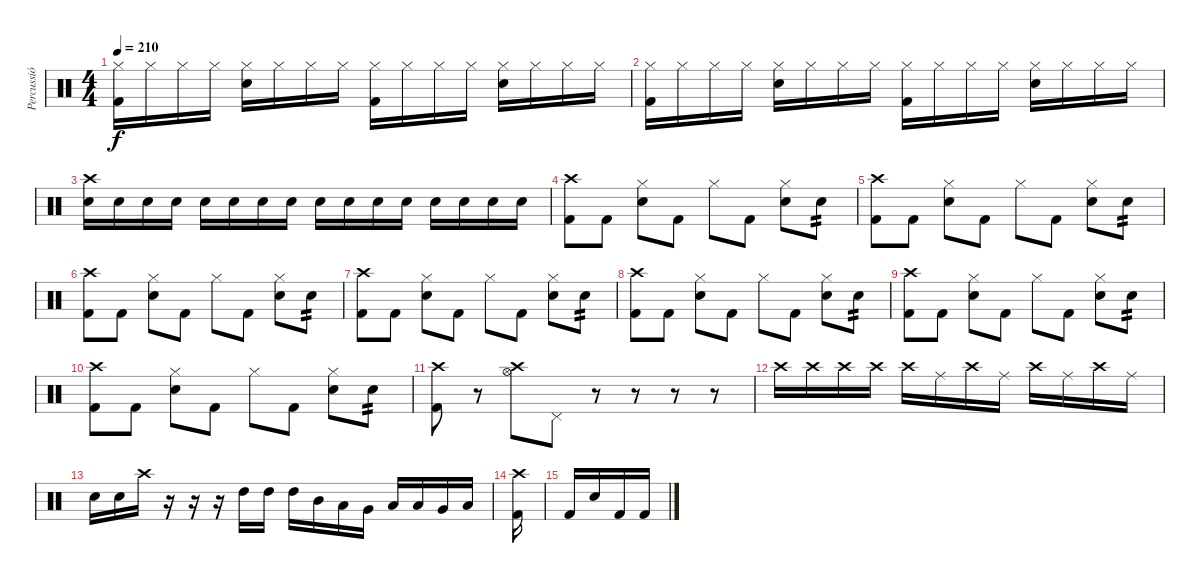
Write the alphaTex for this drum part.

\track ("Percussió" "Percussió") {instrument percussion}
\staff {score}
\articulation defaults
\ts (4 4)
\tempo 210
\clef neutral
\ks c
("Hi-Hat (closed)" "Kick (hit) 2").16{dy f} "Hi-Hat (closed)".16 "Hi-Hat (closed)".16 "Hi-Hat (closed)".16 ("Hi-Hat (closed)" "Snare (hit) 2").16 "Hi-Hat (closed)".16 "Hi-Hat (closed)".16 "Hi-Hat (closed)".16 ("Hi-Hat (closed)" "Kick (hit) 2").16 "Hi-Hat (closed)".16 "Hi-Hat (closed)".16 "Hi-Hat (closed)".16 ("Hi-Hat (closed)" "Snare (hit) 2").16 "Hi-Hat (closed)".16 "Hi-Hat (closed)".16 "Hi-Hat (closed)".16 |
("Hi-Hat (closed)" "Kick (hit) 2").16 "Hi-Hat (closed)".16 "Hi-Hat (closed)".16 "Hi-Hat (closed)".16 ("Hi-Hat (closed)" "Snare (hit) 2").16 "Hi-Hat (closed)".16 "Hi-Hat (closed)".16 "Hi-Hat (closed)".16 ("Hi-Hat (closed)" "Kick (hit) 2").16 "Hi-Hat (closed)".16 "Hi-Hat (closed)".16 "Hi-Hat (closed)".16 ("Hi-Hat (closed)" "Snare (hit) 2").16 "Hi-Hat (closed)".16 "Hi-Hat (closed)".16 "Hi-Hat (closed)".16 |
("Crash high (hit)" "Snare (hit) 2").16 "Snare (hit) 2".16 "Snare (hit) 2".16 "Snare (hit) 2".16 "Snare (hit) 2".16 "Snare (hit) 2".16 "Snare (hit) 2".16 "Snare (hit) 2".16 "Snare (hit) 2".16 "Snare (hit) 2".16 "Snare (hit) 2".16 "Snare (hit) 2".16 "Snare (hit) 2".16 "Snare (hit) 2".16 "Snare (hit) 2".16 "Snare (hit) 2".16 |
("Crash high (hit)" "Kick (hit) 2").8 "Kick (hit) 2".8 ("Hi-Hat (closed)" "Snare (hit) 2").8 "Kick (hit) 2".8 "Hi-Hat (closed)".8 "Kick (hit) 2".8 ("Hi-Hat (closed)" "Snare (hit) 2").8 "Snare (hit) 2".8{tp 2} |
("Crash high (hit)" "Kick (hit) 2").8 "Kick (hit) 2".8 ("Hi-Hat (closed)" "Snare (hit) 2").8 "Kick (hit) 2".8 "Hi-Hat (closed)".8 "Kick (hit) 2".8 ("Hi-Hat (closed)" "Snare (hit) 2").8 "Snare (hit) 2".8{tp 2} |
("Crash high (hit)" "Kick (hit) 2").8 "Kick (hit) 2".8 ("Hi-Hat (closed)" "Snare (hit) 2").8 "Kick (hit) 2".8 "Hi-Hat (closed)".8 "Kick (hit) 2".8 ("Hi-Hat (closed)" "Snare (hit) 2").8 "Snare (hit) 2".8{tp 2} |
("Crash high (hit)" "Kick (hit) 2").8 "Kick (hit) 2".8 ("Hi-Hat (closed)" "Snare (hit) 2").8 "Kick (hit) 2".8 "Hi-Hat (closed)".8 "Kick (hit) 2".8 ("Hi-Hat (closed)" "Snare (hit) 2").8 "Snare (hit) 2".8{tp 2} |
("Crash high (hit)" "Kick (hit) 2").8 "Kick (hit) 2".8 ("Hi-Hat (closed)" "Snare (hit) 2").8 "Kick (hit) 2".8 "Hi-Hat (closed)".8 "Kick (hit) 2".8 ("Hi-Hat (closed)" "Snare (hit) 2").8 "Snare (hit) 2".8{tp 2} |
("Crash high (hit)" "Kick (hit) 2").8 "Kick (hit) 2".8 ("Hi-Hat (closed)" "Snare (hit) 2").8 "Kick (hit) 2".8 "Hi-Hat (closed)".8 "Kick (hit) 2".8 ("Hi-Hat (closed)" "Snare (hit) 2").8 "Snare (hit) 2".8{tp 2} |
("Crash high (hit)" "Kick (hit) 2").8 "Kick (hit) 2".8 ("Hi-Hat (closed)" "Snare (hit) 2").8 "Kick (hit) 2".8 "Hi-Hat (closed)".8 "Kick (hit) 2".8 ("Hi-Hat (closed)" "Snare (hit) 2").8 "Snare (hit) 2".8{tp 2} |
("Crash high (hit)" "Kick (hit) 2").8 r.8 ("Crash high (hit)" "Hi-Hat (open)").8 "Pedal Hi-Hat (hit)".8 r.8 r.8 r.8 r.8 |
"Crash high (hit)".16 "Crash high (hit)".16 "Crash high (hit)".16 "Crash high (hit)".16 "Crash high (hit)".16 "Ride (middle)".16 "Crash high (hit)".16 "Ride (middle)".16 "Crash high (hit)".16 "Ride (middle)".16 "Crash high (hit)".16 "Ride (middle)".16 |
"Snare (hit) 2".16 "Snare (hit) 2".16 "Crash high (hit)".16 r.16 r.16 r.16 "High Tom (hit)".16 "High Tom (hit)".16 "High Tom (hit)".16 "Mid Tom (hit)".16 "Low Tom (hit)".16 "Very Low Tom (hit)".16 "Low Floor Tom (hit)".16 "Low Tom (hit)".16 "Very Low Tom (hit)".16 "Low Floor Tom (hit)".16 |
("Crash high (hit)" "Kick (hit) 2").16 |
"Kick (hit) 2".16 "Snare (hit) 2".16 "Kick (hit) 2".16 "Kick (hit) 2".16
